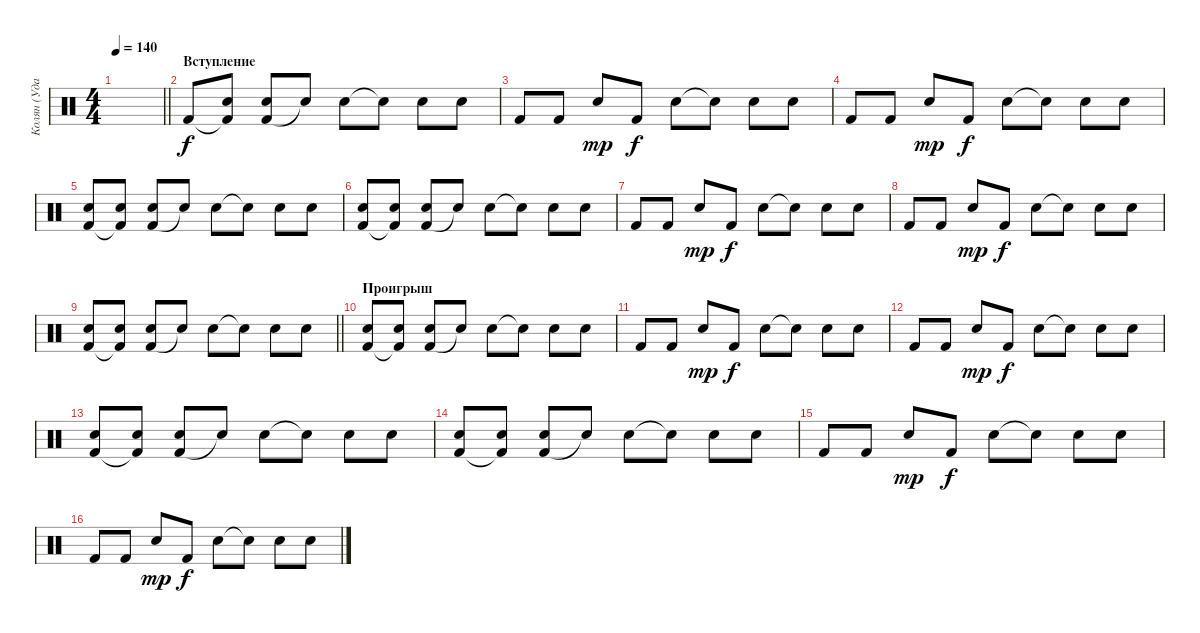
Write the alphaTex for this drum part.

\track ("Колян (Ударные)" "Колян (Уда") {instrument percussion}
\staff {score}
\articulation defaults
\ts (4 4)
\tempo 140
\clef neutral
\barLineRight lightlight
\ks c
|
\section ("" "Вступление")
"Kick (hit) 2".8 ("Kick (hit) 2"{t} "Snare (hit) 2").8 ("Kick (hit) 2" "Snare (hit) 2").8 "Snare (hit)"{t}.8 "Snare (hit) 2".8 "Snare (hit)"{t}.8 "Snare (hit) 2".8 "Snare (hit) 2".8 |
"Kick (hit) 2".8 "Kick (hit) 2".8 "Snare (hit) 2".8{dy mp} "Kick (hit) 2".8{dy f} "Snare (hit) 2".8 "Snare (hit)"{t}.8 "Snare (hit) 2".8 "Snare (hit) 2".8 |
"Kick (hit) 2".8 "Kick (hit) 2".8 "Snare (hit) 2".8{dy mp} "Kick (hit) 2".8{dy f} "Snare (hit) 2".8 "Snare (hit)"{t}.8 "Snare (hit) 2".8 "Snare (hit) 2".8 |
("Kick (hit) 2" "Snare (hit) 2").8 ("Kick (hit) 2"{t} "Snare (hit) 2").8 ("Kick (hit) 2" "Snare (hit) 2").8 "Snare (hit)"{t}.8 "Snare (hit) 2".8 "Snare (hit)"{t}.8 "Snare (hit) 2".8 "Snare (hit) 2".8 |
("Kick (hit) 2" "Snare (hit) 2").8 ("Kick (hit) 2"{t} "Snare (hit) 2").8 ("Kick (hit) 2" "Snare (hit) 2").8 "Snare (hit)"{t}.8 "Snare (hit) 2".8 "Snare (hit)"{t}.8 "Snare (hit) 2".8 "Snare (hit) 2".8 |
"Kick (hit) 2".8 "Kick (hit) 2".8 "Snare (hit) 2".8{dy mp} "Kick (hit) 2".8{dy f} "Snare (hit) 2".8 "Snare (hit)"{t}.8 "Snare (hit) 2".8 "Snare (hit) 2".8 |
"Kick (hit) 2".8 "Kick (hit) 2".8 "Snare (hit) 2".8{dy mp} "Kick (hit) 2".8{dy f} "Snare (hit) 2".8 "Snare (hit)"{t}.8 "Snare (hit) 2".8 "Snare (hit) 2".8 |
\barLineRight lightlight
("Kick (hit) 2" "Snare (hit) 2").8 ("Kick (hit) 2"{t} "Snare (hit) 2").8 ("Kick (hit) 2" "Snare (hit) 2").8 "Snare (hit)"{t}.8 "Snare (hit) 2".8 "Snare (hit)"{t}.8 "Snare (hit) 2".8 "Snare (hit) 2".8 |
\section ("" "Проигрыш")
("Kick (hit) 2" "Snare (hit) 2").8 ("Kick (hit) 2"{t} "Snare (hit) 2").8 ("Kick (hit) 2" "Snare (hit) 2").8 "Snare (hit)"{t}.8 "Snare (hit) 2".8 "Snare (hit)"{t}.8 "Snare (hit) 2".8 "Snare (hit) 2".8 |
"Kick (hit) 2".8 "Kick (hit) 2".8 "Snare (hit) 2".8{dy mp} "Kick (hit) 2".8{dy f} "Snare (hit) 2".8 "Snare (hit)"{t}.8 "Snare (hit) 2".8 "Snare (hit) 2".8 |
"Kick (hit) 2".8 "Kick (hit) 2".8 "Snare (hit) 2".8{dy mp} "Kick (hit) 2".8{dy f} "Snare (hit) 2".8 "Snare (hit)"{t}.8 "Snare (hit) 2".8 "Snare (hit) 2".8 |
("Kick (hit) 2" "Snare (hit) 2").8 ("Kick (hit) 2"{t} "Snare (hit) 2").8 ("Kick (hit) 2" "Snare (hit) 2").8 "Snare (hit)"{t}.8 "Snare (hit) 2".8 "Snare (hit)"{t}.8 "Snare (hit) 2".8 "Snare (hit) 2".8 |
("Kick (hit) 2" "Snare (hit) 2").8 ("Kick (hit) 2"{t} "Snare (hit) 2").8 ("Kick (hit) 2" "Snare (hit) 2").8 "Snare (hit)"{t}.8 "Snare (hit) 2".8 "Snare (hit)"{t}.8 "Snare (hit) 2".8 "Snare (hit) 2".8 |
"Kick (hit) 2".8 "Kick (hit) 2".8 "Snare (hit) 2".8{dy mp} "Kick (hit) 2".8{dy f} "Snare (hit) 2".8 "Snare (hit)"{t}.8 "Snare (hit) 2".8 "Snare (hit) 2".8 |
"Kick (hit) 2".8 "Kick (hit) 2".8 "Snare (hit) 2".8{dy mp} "Kick (hit) 2".8{dy f} "Snare (hit) 2".8 "Snare (hit)"{t}.8 "Snare (hit) 2".8 "Snare (hit) 2".8
